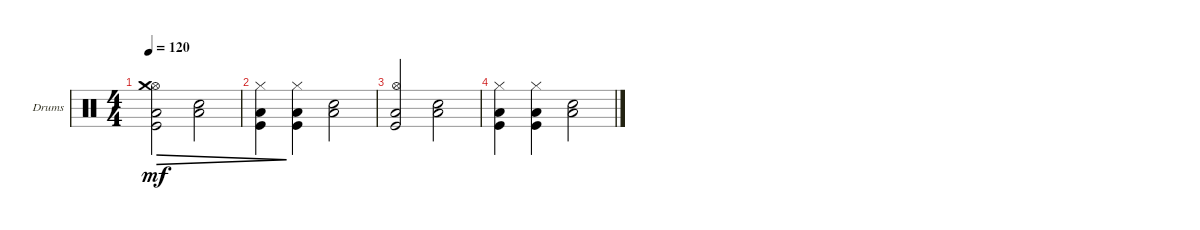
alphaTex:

\bracketExtendMode groupsimilarinstruments
\firstSystemTrackNameOrientation horizontal
\otherSystemsTrackNameOrientation horizontal
\track ("Drumkit" "Drums") {instrument percussion}
\staff {score}
\articulation defaults
\ts (4 4)
\tempo 120
\clef neutral
\ks c
("Kick (hit)" "Hi-Hat (open)" "Low Tom (hit)" "Crash medium (hit)").2{dec dy mf} ("Snare (hit) 2" "Low Tom (hit)").2{dec} |
("Kick (hit)" "Low Tom (hit)" "Hi-Hat (closed)").4{dec} ("Kick (hit)" "Low Tom (hit)" "Hi-Hat (closed)").4 ("Snare (hit) 2" "Low Tom (hit)").2 |
("Kick (hit)" "Hi-Hat (open)" "Low Tom (hit)").2 ("Snare (hit) 2" "Low Tom (hit)").2 |
("Kick (hit)" "Low Tom (hit)" "Hi-Hat (closed)").4 ("Kick (hit)" "Low Tom (hit)" "Hi-Hat (closed)").4 ("Snare (hit) 2" "Low Tom (hit)").2
